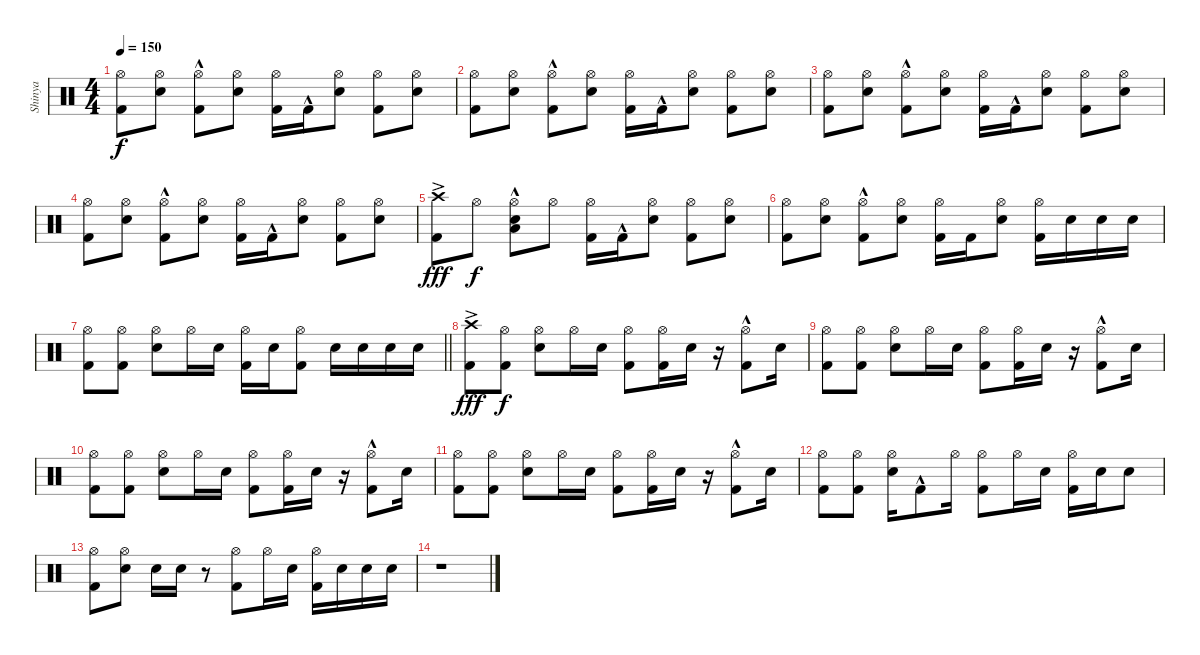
\track ("Shinya" "Shinya") {instrument percussion}
\staff {score}
\articulation defaults
\ts (4 4)
\tempo 150
\clef neutral
\ks c
("Hi-Hat (open)" "Kick (hit) 2").8{dy f} ("Hi-Hat (open)" "Snare (hit) 2").8 ("Hi-Hat (open)" "Kick (hit) 2"{hac}).8 ("Hi-Hat (open)" "Snare (hit) 2").8 ("Hi-Hat (open)" "Kick (hit) 2").16 "Kick (hit) 2"{hac}.16 ("Hi-Hat (open)" "Snare (hit) 2").8 ("Hi-Hat (open)" "Kick (hit) 2").8 ("Hi-Hat (open)" "Snare (hit) 2").8 |
("Hi-Hat (open)" "Kick (hit) 2").8 ("Hi-Hat (open)" "Snare (hit) 2").8 ("Hi-Hat (open)" "Kick (hit) 2"{hac}).8 ("Hi-Hat (open)" "Snare (hit) 2").8 ("Hi-Hat (open)" "Kick (hit) 2").16 "Kick (hit) 2"{hac}.16 ("Hi-Hat (open)" "Snare (hit) 2").8 ("Hi-Hat (open)" "Kick (hit) 2").8 ("Hi-Hat (open)" "Snare (hit) 2").8 |
("Hi-Hat (open)" "Kick (hit) 2").8 ("Hi-Hat (open)" "Snare (hit) 2").8 ("Hi-Hat (open)" "Kick (hit) 2"{hac}).8 ("Hi-Hat (open)" "Snare (hit) 2").8 ("Hi-Hat (open)" "Kick (hit) 2").16 "Kick (hit) 2"{hac}.16 ("Hi-Hat (open)" "Snare (hit) 2").8 ("Hi-Hat (open)" "Kick (hit) 2").8 ("Hi-Hat (open)" "Snare (hit) 2").8 |
("Hi-Hat (open)" "Kick (hit) 2").8 ("Hi-Hat (open)" "Snare (hit) 2").8 ("Hi-Hat (open)" "Kick (hit) 2"{hac}).8 ("Hi-Hat (open)" "Snare (hit) 2").8 ("Hi-Hat (open)" "Kick (hit) 2").16 "Kick (hit) 2"{hac}.16 ("Hi-Hat (open)" "Snare (hit) 2").8 ("Hi-Hat (open)" "Kick (hit) 2").8 ("Hi-Hat (open)" "Snare (hit) 2").8 |
("Crash high (hit)"{ac} "Kick (hit) 2").8{dy fff} "Hi-Hat (open)".8{dy f} ("Hi-Hat (open)" "Snare (hit) 2" "Low Floor Tom (hit)"{hac}).8 "Hi-Hat (open)".8 ("Hi-Hat (open)" "Kick (hit) 2").16 "Kick (hit) 2"{hac}.16 ("Hi-Hat (open)" "Snare (hit) 2").8 ("Hi-Hat (open)" "Kick (hit) 2").8 ("Hi-Hat (open)" "Snare (hit) 2").8 |
("Hi-Hat (open)" "Kick (hit) 2").8 ("Hi-Hat (open)" "Snare (hit) 2").8 ("Hi-Hat (open)" "Kick (hit) 2"{hac}).8 ("Hi-Hat (open)" "Snare (hit) 2").8 ("Hi-Hat (open)" "Kick (hit) 2").16 "Kick (hit) 2".16 ("Hi-Hat (open)" "Snare (hit) 2").8 ("Hi-Hat (open)" "Kick (hit) 2").16 "Snare (hit) 2".16 "Snare (hit) 2".16 "Snare (hit) 2".16 |
\barLineRight lightlight
("Hi-Hat (open)" "Kick (hit) 2").8 ("Hi-Hat (open)" "Kick (hit) 2").8 ("Hi-Hat (open)" "Snare (hit) 2").8 "Hi-Hat (open)".16 "Snare (hit) 2".16 ("Hi-Hat (open)" "Kick (hit) 2").16 "Snare (hit) 2".16 ("Hi-Hat (open)" "Kick (hit) 2").8 "Snare (hit) 2".16 "Snare (hit) 2".16 "Snare (hit) 2".16 "Snare (hit) 2".16 |
("Crash high (hit)"{ac} "Kick (hit) 2").8{dy fff} ("Hi-Hat (open)" "Kick (hit) 2").8{dy f} ("Hi-Hat (open)" "Snare (hit) 2").8 "Hi-Hat (open)".16 "Snare (hit) 2".16 ("Hi-Hat (open)" "Kick (hit) 2").8 ("Hi-Hat (open)" "Kick (hit) 2").16 "Snare (hit) 2".16 r.16 ("Hi-Hat (open)" "Kick (hit) 2"{hac}).8 "Snare (hit) 2".16 |
("Hi-Hat (open)" "Kick (hit) 2").8 ("Hi-Hat (open)" "Kick (hit) 2").8 ("Hi-Hat (open)" "Snare (hit) 2").8 "Hi-Hat (open)".16 "Snare (hit) 2".16 ("Hi-Hat (open)" "Kick (hit) 2").8 ("Hi-Hat (open)" "Kick (hit) 2").16 "Snare (hit) 2".16 r.16 ("Hi-Hat (open)" "Kick (hit) 2"{hac}).8 "Snare (hit) 2".16 |
("Hi-Hat (open)" "Kick (hit) 2").8 ("Hi-Hat (open)" "Kick (hit) 2").8 ("Hi-Hat (open)" "Snare (hit) 2").8 "Hi-Hat (open)".16 "Snare (hit) 2".16 ("Hi-Hat (open)" "Kick (hit) 2").8 ("Hi-Hat (open)" "Kick (hit) 2").16 "Snare (hit) 2".16 r.16 ("Hi-Hat (open)" "Kick (hit) 2"{hac}).8 "Snare (hit) 2".16 |
("Hi-Hat (open)" "Kick (hit) 2").8 ("Hi-Hat (open)" "Kick (hit) 2").8 ("Hi-Hat (open)" "Snare (hit) 2").8 "Hi-Hat (open)".16 "Snare (hit) 2".16 ("Hi-Hat (open)" "Kick (hit) 2").8 ("Hi-Hat (open)" "Kick (hit) 2").16 "Snare (hit) 2".16 r.16 ("Hi-Hat (open)" "Kick (hit) 2"{hac}).8 "Snare (hit) 2".16 |
("Hi-Hat (open)" "Kick (hit) 2").8 ("Hi-Hat (open)" "Kick (hit) 2").8 ("Hi-Hat (open)" "Snare (hit) 2").16 "Kick (hit) 2"{hac}.8 "Hi-Hat (open)".16 ("Hi-Hat (open)" "Kick (hit) 2").8 "Hi-Hat (open)".16 "Snare (hit) 2".16 ("Hi-Hat (open)" "Kick (hit) 2").16 "Snare (hit) 2".16 "Snare (hit) 2".8 |
("Hi-Hat (open)" "Kick (hit) 2").8 ("Hi-Hat (open)" "Snare (hit) 2").8 "Snare (hit) 2".16 "Snare (hit) 2".16 r.8 ("Hi-Hat (open)" "Kick (hit) 2").8 "Hi-Hat (open)".16 "Snare (hit) 2".16 ("Hi-Hat (open)" "Kick (hit) 2").16 "Snare (hit) 2".16 "Snare (hit) 2".16 "Snare (hit) 2".16 |
r.1
